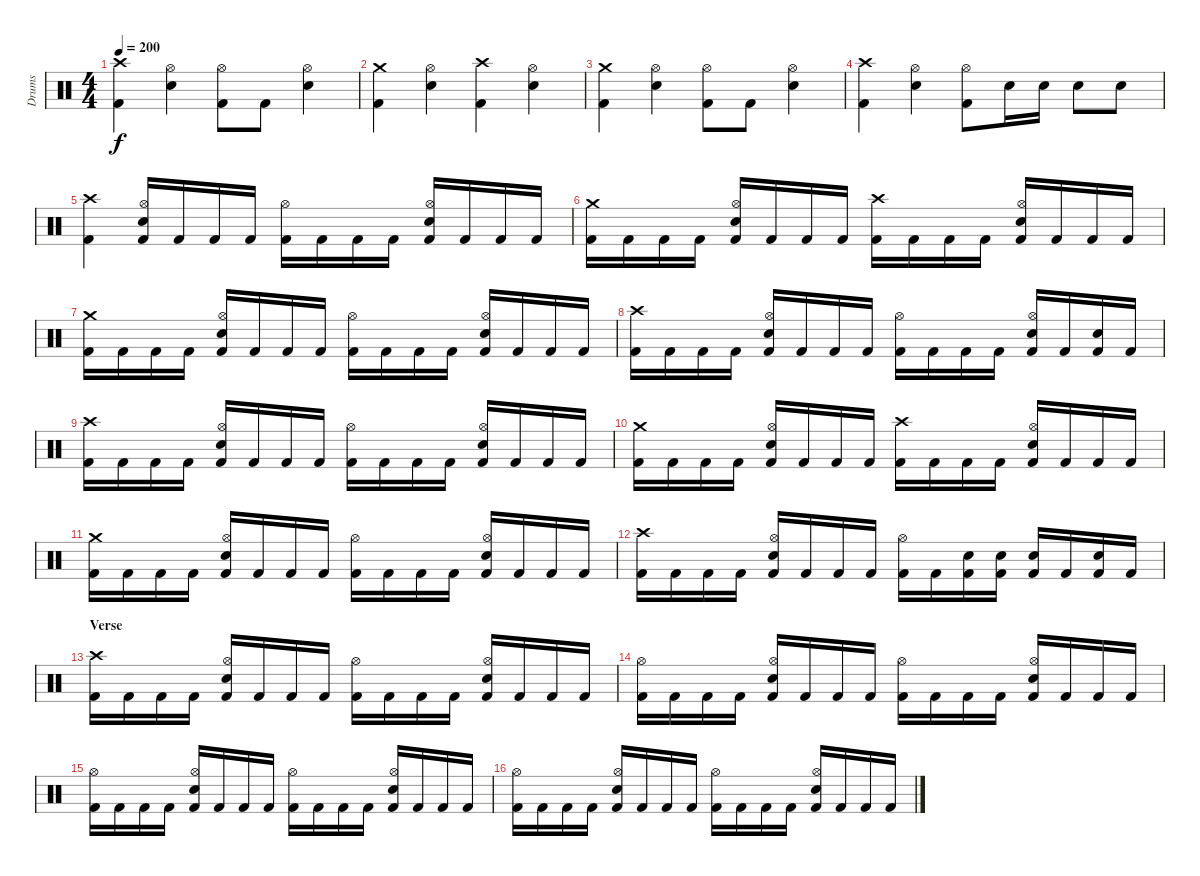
\track ("Drums" "Drums") {instrument percussion}
\staff {score}
\articulation defaults
\ts (4 4)
\tempo 200
\clef neutral
\ks c
("Crash high (hit)" "Kick (hit) 2").4{dy f} ("Hi-Hat (open)" "Electric Snare (hit)").4 ("Hi-Hat (open)" "Kick (hit) 2").8 "Kick (hit) 2".8 ("Hi-Hat (open)" "Electric Snare (hit)").4 |
("Crash medium (hit)" "Kick (hit) 2").4 ("Hi-Hat (open)" "Electric Snare (hit)").4 ("Crash high (hit)" "Kick (hit) 2").4 ("Hi-Hat (open)" "Electric Snare (hit)").4 |
("Crash medium (hit)" "Kick (hit) 2").4 ("Hi-Hat (open)" "Electric Snare (hit)").4 ("Hi-Hat (open)" "Kick (hit) 2").8 "Kick (hit) 2".8 ("Hi-Hat (open)" "Electric Snare (hit)").4 |
("Crash high (hit)" "Kick (hit) 2").4 ("Hi-Hat (open)" "Electric Snare (hit)").4 ("Hi-Hat (open)" "Kick (hit) 2").8 "Electric Snare (hit)".16 "Electric Snare (hit)".16 "Electric Snare (hit)".8 "Electric Snare (hit)".8 |
("Crash high (hit)" "Kick (hit) 2").4 ("Hi-Hat (open)" "Electric Snare (hit)" "Kick (hit) 2").16 "Kick (hit) 2".16 "Kick (hit) 2".16 "Kick (hit) 2".16 ("Hi-Hat (open)" "Kick (hit) 2").16 "Kick (hit) 2".16 "Kick (hit) 2".16 "Kick (hit) 2".16 ("Hi-Hat (open)" "Electric Snare (hit)" "Kick (hit) 2").16 "Kick (hit) 2".16 "Kick (hit) 2".16 "Kick (hit) 2".16 |
("Crash medium (hit)" "Kick (hit) 2").16 "Kick (hit) 2".16 "Kick (hit) 2".16 "Kick (hit) 2".16 ("Hi-Hat (open)" "Electric Snare (hit)" "Kick (hit) 2").16 "Kick (hit) 2".16 "Kick (hit) 2".16 "Kick (hit) 2".16 ("Crash high (hit)" "Kick (hit) 2").16 "Kick (hit) 2".16 "Kick (hit) 2".16 "Kick (hit) 2".16 ("Hi-Hat (open)" "Electric Snare (hit)" "Kick (hit) 2").16 "Kick (hit) 2".16 "Kick (hit) 2".16 "Kick (hit) 2".16 |
("Crash medium (hit)" "Kick (hit) 2").16 "Kick (hit) 2".16 "Kick (hit) 2".16 "Kick (hit) 2".16 ("Hi-Hat (open)" "Electric Snare (hit)" "Kick (hit) 2").16 "Kick (hit) 2".16 "Kick (hit) 2".16 "Kick (hit) 2".16 ("Hi-Hat (open)" "Kick (hit) 2").16 "Kick (hit) 2".16 "Kick (hit) 2".16 "Kick (hit) 2".16 ("Hi-Hat (open)" "Electric Snare (hit)" "Kick (hit) 2").16 "Kick (hit) 2".16 "Kick (hit) 2".16 "Kick (hit) 2".16 |
("Crash high (hit)" "Kick (hit) 2").16 "Kick (hit) 2".16 "Kick (hit) 2".16 "Kick (hit) 2".16 ("Hi-Hat (open)" "Electric Snare (hit)" "Kick (hit) 2").16 "Kick (hit) 2".16 "Kick (hit) 2".16 "Kick (hit) 2".16 ("Hi-Hat (open)" "Kick (hit) 2").16 "Kick (hit) 2".16 "Kick (hit) 2".16 "Kick (hit) 2".16 ("Hi-Hat (open)" "Electric Snare (hit)" "Kick (hit) 2").16 "Kick (hit) 2".16 ("Electric Snare (hit)" "Kick (hit) 2").16 "Kick (hit) 2".16 |
("Crash high (hit)" "Kick (hit) 2").16 "Kick (hit) 2".16 "Kick (hit) 2".16 "Kick (hit) 2".16 ("Hi-Hat (open)" "Electric Snare (hit)" "Kick (hit) 2").16 "Kick (hit) 2".16 "Kick (hit) 2".16 "Kick (hit) 2".16 ("Hi-Hat (open)" "Kick (hit) 2").16 "Kick (hit) 2".16 "Kick (hit) 2".16 "Kick (hit) 2".16 ("Hi-Hat (open)" "Electric Snare (hit)" "Kick (hit) 2").16 "Kick (hit) 2".16 "Kick (hit) 2".16 "Kick (hit) 2".16 |
("Crash medium (hit)" "Kick (hit) 2").16 "Kick (hit) 2".16 "Kick (hit) 2".16 "Kick (hit) 2".16 ("Hi-Hat (open)" "Electric Snare (hit)" "Kick (hit) 2").16 "Kick (hit) 2".16 "Kick (hit) 2".16 "Kick (hit) 2".16 ("Crash high (hit)" "Kick (hit) 2").16 "Kick (hit) 2".16 "Kick (hit) 2".16 "Kick (hit) 2".16 ("Hi-Hat (open)" "Electric Snare (hit)" "Kick (hit) 2").16 "Kick (hit) 2".16 "Kick (hit) 2".16 "Kick (hit) 2".16 |
("Crash medium (hit)" "Kick (hit) 2").16 "Kick (hit) 2".16 "Kick (hit) 2".16 "Kick (hit) 2".16 ("Hi-Hat (open)" "Electric Snare (hit)" "Kick (hit) 2").16 "Kick (hit) 2".16 "Kick (hit) 2".16 "Kick (hit) 2".16 ("Hi-Hat (open)" "Kick (hit) 2").16 "Kick (hit) 2".16 "Kick (hit) 2".16 "Kick (hit) 2".16 ("Hi-Hat (open)" "Electric Snare (hit)" "Kick (hit) 2").16 "Kick (hit) 2".16 "Kick (hit) 2".16 "Kick (hit) 2".16 |
("Crash high (hit)" "Kick (hit) 2").16 "Kick (hit) 2".16 "Kick (hit) 2".16 "Kick (hit) 2".16 ("Hi-Hat (open)" "Electric Snare (hit)" "Kick (hit) 2").16 "Kick (hit) 2".16 "Kick (hit) 2".16 "Kick (hit) 2".16 ("Hi-Hat (open)" "Kick (hit) 2").16 "Kick (hit) 2".16 ("Electric Snare (hit)" "Kick (hit) 2").16 ("Electric Snare (hit)" "Kick (hit) 2").16 ("Electric Snare (hit)" "Kick (hit) 2").16 "Kick (hit) 2".16 ("Electric Snare (hit)" "Kick (hit) 2").16 "Kick (hit) 2".16 |
\section ("" "Verse")
("Crash high (hit)" "Kick (hit) 2").16 "Kick (hit) 2".16 "Kick (hit) 2".16 "Kick (hit) 2".16 ("Hi-Hat (open)" "Electric Snare (hit)" "Kick (hit) 2").16 "Kick (hit) 2".16 "Kick (hit) 2".16 "Kick (hit) 2".16 ("Hi-Hat (open)" "Kick (hit) 2").16 "Kick (hit) 2".16 "Kick (hit) 2".16 "Kick (hit) 2".16 ("Hi-Hat (open)" "Electric Snare (hit)" "Kick (hit) 2").16 "Kick (hit) 2".16 "Kick (hit) 2".16 "Kick (hit) 2".16 |
("Hi-Hat (open)" "Kick (hit) 2").16 "Kick (hit) 2".16 "Kick (hit) 2".16 "Kick (hit) 2".16 ("Hi-Hat (open)" "Electric Snare (hit)" "Kick (hit) 2").16 "Kick (hit) 2".16 "Kick (hit) 2".16 "Kick (hit) 2".16 ("Hi-Hat (open)" "Kick (hit) 2").16 "Kick (hit) 2".16 "Kick (hit) 2".16 "Kick (hit) 2".16 ("Hi-Hat (open)" "Electric Snare (hit)" "Kick (hit) 2").16 "Kick (hit) 2".16 "Kick (hit) 2".16 "Kick (hit) 2".16 |
("Hi-Hat (open)" "Kick (hit) 2").16 "Kick (hit) 2".16 "Kick (hit) 2".16 "Kick (hit) 2".16 ("Hi-Hat (open)" "Electric Snare (hit)" "Kick (hit) 2").16 "Kick (hit) 2".16 "Kick (hit) 2".16 "Kick (hit) 2".16 ("Hi-Hat (open)" "Kick (hit) 2").16 "Kick (hit) 2".16 "Kick (hit) 2".16 "Kick (hit) 2".16 ("Hi-Hat (open)" "Electric Snare (hit)" "Kick (hit) 2").16 "Kick (hit) 2".16 "Kick (hit) 2".16 "Kick (hit) 2".16 |
("Hi-Hat (open)" "Kick (hit) 2").16 "Kick (hit) 2".16 "Kick (hit) 2".16 "Kick (hit) 2".16 ("Hi-Hat (open)" "Electric Snare (hit)" "Kick (hit) 2").16 "Kick (hit) 2".16 "Kick (hit) 2".16 "Kick (hit) 2".16 ("Hi-Hat (open)" "Kick (hit) 2").16 "Kick (hit) 2".16 "Kick (hit) 2".16 "Kick (hit) 2".16 ("Hi-Hat (open)" "Electric Snare (hit)" "Kick (hit) 2").16 "Kick (hit) 2".16 "Kick (hit) 2".16 "Kick (hit) 2".16
